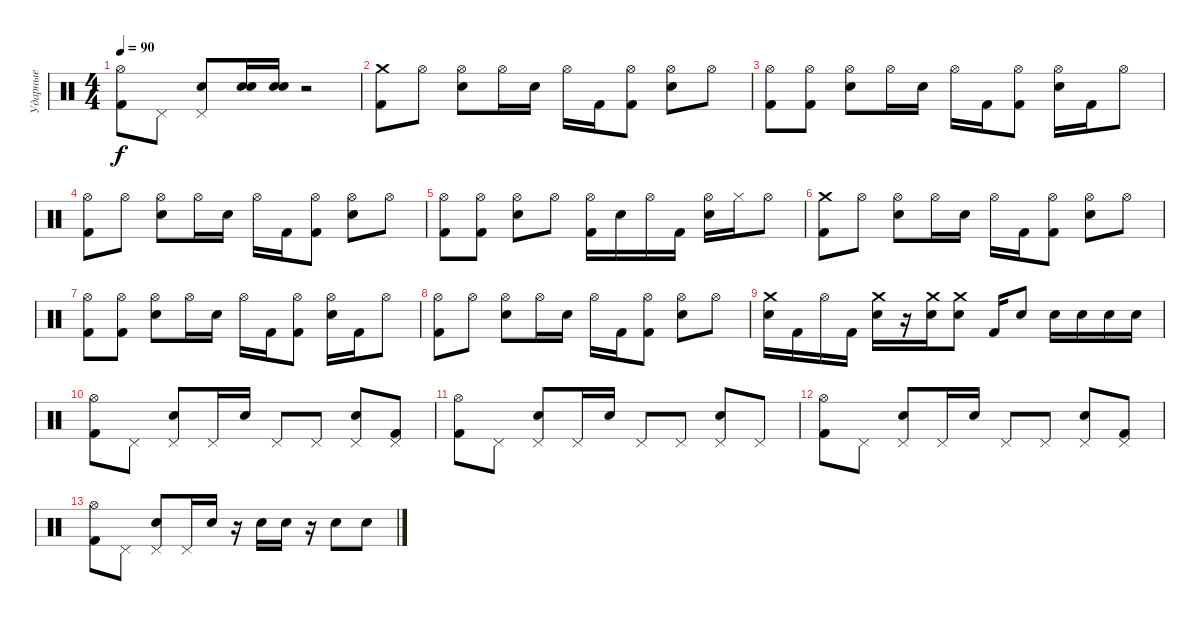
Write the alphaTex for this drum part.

\track ("Ударные" "Ударные") {instrument percussion}
\staff {score}
\articulation defaults
\ts (4 4)
\tempo 90
\clef neutral
\ks c
("Hi-Hat (open)" "Kick (hit) 2").8{dy f} "Pedal Hi-Hat (hit)".8 ("Pedal Hi-Hat (hit)" "Electric Snare (hit)").8 ("Electric Snare (hit)" "Electric Snare (hit)").16 ("Electric Snare (hit)" "Electric Snare (hit)").16 r.2 |
("Crash medium (hit)" "Kick (hit) 2").8 "Hi-Hat (open)".8 ("Hi-Hat (open)" "Electric Snare (hit)").8 "Hi-Hat (open)".16 "Electric Snare (hit)".16 "Hi-Hat (open)".16 "Kick (hit) 2".16 ("Kick (hit) 2" "Hi-Hat (open)").8 ("Hi-Hat (open)" "Electric Snare (hit)").8 "Hi-Hat (open)".8 |
("Hi-Hat (open)" "Kick (hit) 2").8 ("Hi-Hat (open)" "Kick (hit) 2").8 ("Hi-Hat (open)" "Electric Snare (hit)").8 "Hi-Hat (open)".16 "Electric Snare (hit)".16 "Hi-Hat (open)".16 "Kick (hit) 2".16 ("Kick (hit) 2" "Hi-Hat (open)").8 ("Hi-Hat (open)" "Electric Snare (hit)").16 "Kick (hit) 2".16 "Hi-Hat (open)".8 |
("Hi-Hat (open)" "Kick (hit) 2").8 "Hi-Hat (open)".8 ("Hi-Hat (open)" "Electric Snare (hit)").8 "Hi-Hat (open)".16 "Electric Snare (hit)".16 "Hi-Hat (open)".16 "Kick (hit) 2".16 ("Kick (hit) 2" "Hi-Hat (open)").8 ("Hi-Hat (open)" "Electric Snare (hit)").8 "Hi-Hat (open)".8 |
("Kick (hit) 2" "Hi-Hat (open)").8 ("Kick (hit) 2" "Hi-Hat (open)").8 ("Electric Snare (hit)" "Hi-Hat (open)").8 "Hi-Hat (open)".8 ("Hi-Hat (open)" "Kick (hit) 2").16 "Electric Snare (hit)".16 "Hi-Hat (open)".16 "Kick (hit) 2".16 ("Hi-Hat (open)" "Electric Snare (hit)").16 "Hi-Hat (closed)".16 "Hi-Hat (open)".8 |
("Crash medium (hit)" "Kick (hit) 2").8 "Hi-Hat (open)".8 ("Hi-Hat (open)" "Electric Snare (hit)").8 "Hi-Hat (open)".16 "Electric Snare (hit)".16 "Hi-Hat (open)".16 "Kick (hit) 2".16 ("Kick (hit) 2" "Hi-Hat (open)").8 ("Hi-Hat (open)" "Electric Snare (hit)").8 "Hi-Hat (open)".8 |
("Hi-Hat (open)" "Kick (hit) 2").8 ("Hi-Hat (open)" "Kick (hit) 2").8 ("Hi-Hat (open)" "Electric Snare (hit)").8 "Hi-Hat (open)".16 "Electric Snare (hit)".16 "Hi-Hat (open)".16 "Kick (hit) 2".16 ("Kick (hit) 2" "Hi-Hat (open)").8 ("Hi-Hat (open)" "Electric Snare (hit)").16 "Kick (hit) 2".16 "Hi-Hat (open)".8 |
("Hi-Hat (open)" "Kick (hit) 2").8 "Hi-Hat (open)".8 ("Hi-Hat (open)" "Electric Snare (hit)").8 "Hi-Hat (open)".16 "Electric Snare (hit)".16 "Hi-Hat (open)".16 "Kick (hit) 2".16 ("Kick (hit) 2" "Hi-Hat (open)").8 ("Hi-Hat (open)" "Electric Snare (hit)").8 "Hi-Hat (open)".8 |
("Crash medium (hit)" "Electric Snare (hit)").16 "Kick (hit) 2".16 "Hi-Hat (open)".16 "Kick (hit) 2".16 ("Crash medium (hit)" "Electric Snare (hit)").16 r.16 ("Crash medium (hit)" "Electric Snare (hit)").16 ("Crash medium (hit)" "Electric Snare (hit)").8 "Kick (hit) 2".16 "Electric Snare (hit)".8 "Electric Snare (hit)".16 "Electric Snare (hit)".16 "Electric Snare (hit)".16 "Electric Snare (hit)".16 |
("Hi-Hat (open)" "Kick (hit) 2").8 "Pedal Hi-Hat (hit)".8 ("Pedal Hi-Hat (hit)" "Electric Snare (hit)").8 "Pedal Hi-Hat (hit)".16 "Electric Snare (hit)".16 "Pedal Hi-Hat (hit)".8 "Pedal Hi-Hat (hit)".8 ("Pedal Hi-Hat (hit)" "Electric Snare (hit)").8 ("Pedal Hi-Hat (hit)" "Kick (hit) 2").8 |
("Hi-Hat (open)" "Kick (hit) 2").8 "Pedal Hi-Hat (hit)".8 ("Pedal Hi-Hat (hit)" "Electric Snare (hit)").8 "Pedal Hi-Hat (hit)".16 "Electric Snare (hit)".16 "Pedal Hi-Hat (hit)".8 "Pedal Hi-Hat (hit)".8 ("Pedal Hi-Hat (hit)" "Electric Snare (hit)").8 "Pedal Hi-Hat (hit)".8 |
("Hi-Hat (open)" "Kick (hit) 2").8 "Pedal Hi-Hat (hit)".8 ("Pedal Hi-Hat (hit)" "Electric Snare (hit)").8 "Pedal Hi-Hat (hit)".16 "Electric Snare (hit)".16 "Pedal Hi-Hat (hit)".8 "Pedal Hi-Hat (hit)".8 ("Pedal Hi-Hat (hit)" "Electric Snare (hit)").8 ("Pedal Hi-Hat (hit)" "Kick (hit) 2").8 |
("Hi-Hat (open)" "Kick (hit) 2").8 "Pedal Hi-Hat (hit)".8 ("Pedal Hi-Hat (hit)" "Electric Snare (hit)").8 "Pedal Hi-Hat (hit)".16 "Electric Snare (hit)".16 r.16 "Electric Snare (hit)".16 "Electric Snare (hit)".16 r.16 "Electric Snare (hit)".8 "Electric Snare (hit)".8
